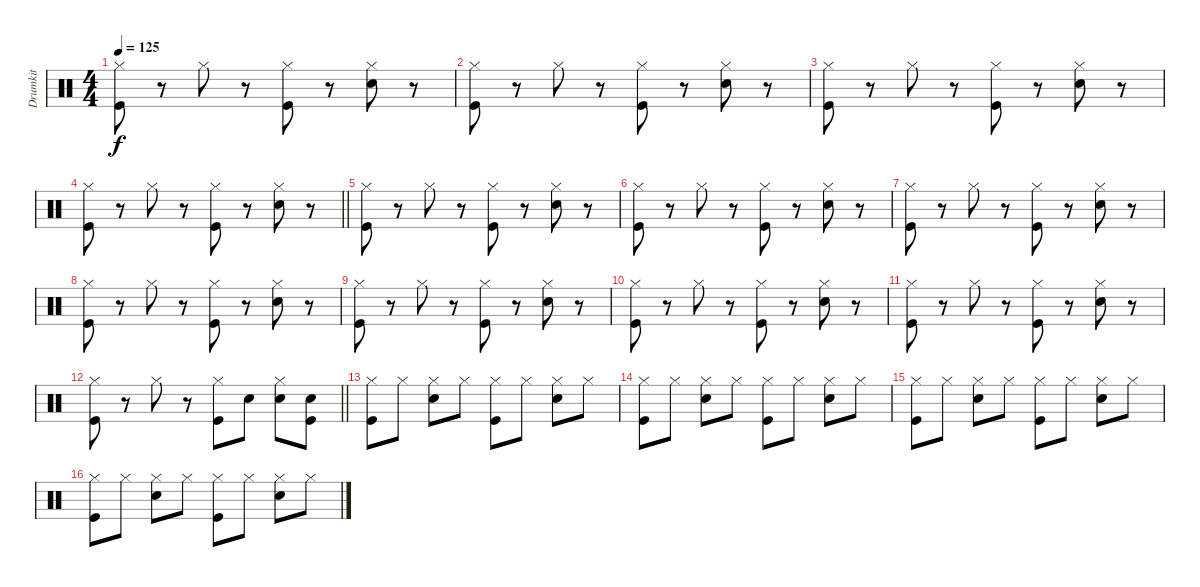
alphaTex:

\track ("Drumkit" "Drumkit") {instrument percussion}
\staff {score}
\articulation defaults
\ts (4 4)
\tempo 125
\clef neutral
\ks c
("Kick (hit)" "Hi-Hat (closed)").8{dy f} r.8 "Hi-Hat (closed)".8 r.8 ("Kick (hit)" "Hi-Hat (closed)").8 r.8 ("Snare (hit) 2" "Hi-Hat (closed)").8 r.8 |
("Kick (hit)" "Hi-Hat (closed)").8 r.8 "Hi-Hat (closed)".8 r.8 ("Kick (hit)" "Hi-Hat (closed)").8 r.8 ("Snare (hit) 2" "Hi-Hat (closed)").8 r.8 |
("Kick (hit)" "Hi-Hat (closed)").8 r.8 "Hi-Hat (closed)".8 r.8 ("Kick (hit)" "Hi-Hat (closed)").8 r.8 ("Snare (hit) 2" "Hi-Hat (closed)").8 r.8 |
\barLineRight lightlight
("Kick (hit)" "Hi-Hat (closed)").8 r.8 "Hi-Hat (closed)".8 r.8 ("Kick (hit)" "Hi-Hat (closed)").8 r.8 ("Snare (hit) 2" "Hi-Hat (closed)").8 r.8 |
("Kick (hit)" "Hi-Hat (closed)").8 r.8 "Hi-Hat (closed)".8 r.8 ("Kick (hit)" "Hi-Hat (closed)").8 r.8 ("Snare (hit) 2" "Hi-Hat (closed)").8 r.8 |
("Kick (hit)" "Hi-Hat (closed)").8 r.8 "Hi-Hat (closed)".8 r.8 ("Kick (hit)" "Hi-Hat (closed)").8 r.8 ("Snare (hit) 2" "Hi-Hat (closed)").8 r.8 |
("Kick (hit)" "Hi-Hat (closed)").8 r.8 "Hi-Hat (closed)".8 r.8 ("Kick (hit)" "Hi-Hat (closed)").8 r.8 ("Snare (hit) 2" "Hi-Hat (closed)").8 r.8 |
("Kick (hit)" "Hi-Hat (closed)").8 r.8 "Hi-Hat (closed)".8 r.8 ("Kick (hit)" "Hi-Hat (closed)").8 r.8 ("Snare (hit) 2" "Hi-Hat (closed)").8 r.8 |
("Kick (hit)" "Hi-Hat (closed)").8 r.8 "Hi-Hat (closed)".8 r.8 ("Kick (hit)" "Hi-Hat (closed)").8 r.8 ("Snare (hit) 2" "Hi-Hat (closed)").8 r.8 |
("Kick (hit)" "Hi-Hat (closed)").8 r.8 "Hi-Hat (closed)".8 r.8 ("Kick (hit)" "Hi-Hat (closed)").8 r.8 ("Snare (hit) 2" "Hi-Hat (closed)").8 r.8 |
("Kick (hit)" "Hi-Hat (closed)").8 r.8 "Hi-Hat (closed)".8 r.8 ("Kick (hit)" "Hi-Hat (closed)").8 r.8 ("Snare (hit) 2" "Hi-Hat (closed)").8 r.8 |
\barLineRight lightlight
("Kick (hit)" "Hi-Hat (closed)").8 r.8 "Hi-Hat (closed)".8 r.8 ("Kick (hit)" "Hi-Hat (closed)").8 "Snare (hit) 2".8 ("Snare (hit) 2" "Hi-Hat (closed)").8 ("Snare (hit) 2" "Kick (hit)").8 |
("Kick (hit)" "Hi-Hat (closed)").8 "Hi-Hat (closed)".8 ("Snare (hit) 2" "Hi-Hat (closed)").8 "Hi-Hat (closed)".8 ("Kick (hit)" "Hi-Hat (closed)").8 "Hi-Hat (closed)".8 ("Snare (hit) 2" "Hi-Hat (closed)").8 "Hi-Hat (closed)".8 |
("Kick (hit)" "Hi-Hat (closed)").8 "Hi-Hat (closed)".8 ("Snare (hit) 2" "Hi-Hat (closed)").8 "Hi-Hat (closed)".8 ("Kick (hit)" "Hi-Hat (closed)").8 "Hi-Hat (closed)".8 ("Snare (hit) 2" "Hi-Hat (closed)").8 "Hi-Hat (closed)".8 |
("Kick (hit)" "Hi-Hat (closed)").8 "Hi-Hat (closed)".8 ("Snare (hit) 2" "Hi-Hat (closed)").8 "Hi-Hat (closed)".8 ("Kick (hit)" "Hi-Hat (closed)").8 "Hi-Hat (closed)".8 ("Snare (hit) 2" "Hi-Hat (closed)").8 "Hi-Hat (closed)".8 |
("Kick (hit)" "Hi-Hat (closed)").8 "Hi-Hat (closed)".8 ("Snare (hit) 2" "Hi-Hat (closed)").8 "Hi-Hat (closed)".8 ("Kick (hit)" "Hi-Hat (closed)").8 "Hi-Hat (closed)".8 ("Snare (hit) 2" "Hi-Hat (closed)").8 "Hi-Hat (closed)".8
